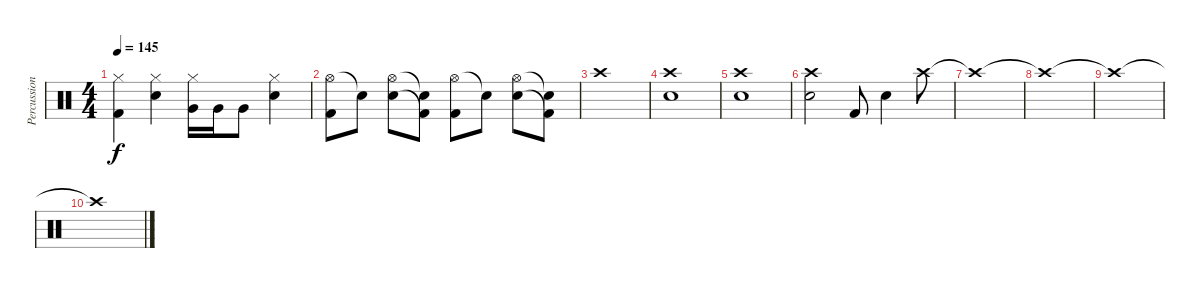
\track ("Percussion" "Percussion") {instrument percussion}
\staff {score}
\articulation defaults
\ts (4 4)
\tempo 145
\clef neutral
\ks c
("Hi-Hat (closed)" "Kick (hit) 2").4{dy f} ("Hi-Hat (closed)" "Electric Snare (hit)").4 ("Hi-Hat (closed)" "Very Low Tom (hit)").16 "Very Low Tom (hit)".16 "Very Low Tom (hit)".8 ("Hi-Hat (closed)" "Electric Snare (hit)").4 |
("Hi-Hat (open)" "Kick (hit) 2").8 "Snare (hit)"{t}.8 ("Hi-Hat (open)" "Electric Snare (hit)").8 ("Snare (hit)"{t} "Kick (hit) 2"{t}).8 ("Hi-Hat (open)" "Kick (hit) 2").8 "Snare (hit)"{t}.8 ("Hi-Hat (open)" "Electric Snare (hit)").8 ("Snare (hit)"{t} "Kick (hit) 2"{t}).8 |
"Crash high (hit)".1 |
("Electric Snare (hit)" "Crash high (hit)").1 |
("Electric Snare (hit)" "Crash high (hit)").1 |
("Electric Snare (hit)" "Crash high (hit)").2 "Kick (hit) 2".8 "Electric Snare (hit)".4 "Crash high (hit)".8 |
"Crash high (hit)"{t}.1 |
"Crash high (hit)"{t}.1 |
"Crash high (hit)"{t}.1 |
"Crash high (hit)"{t}.1
